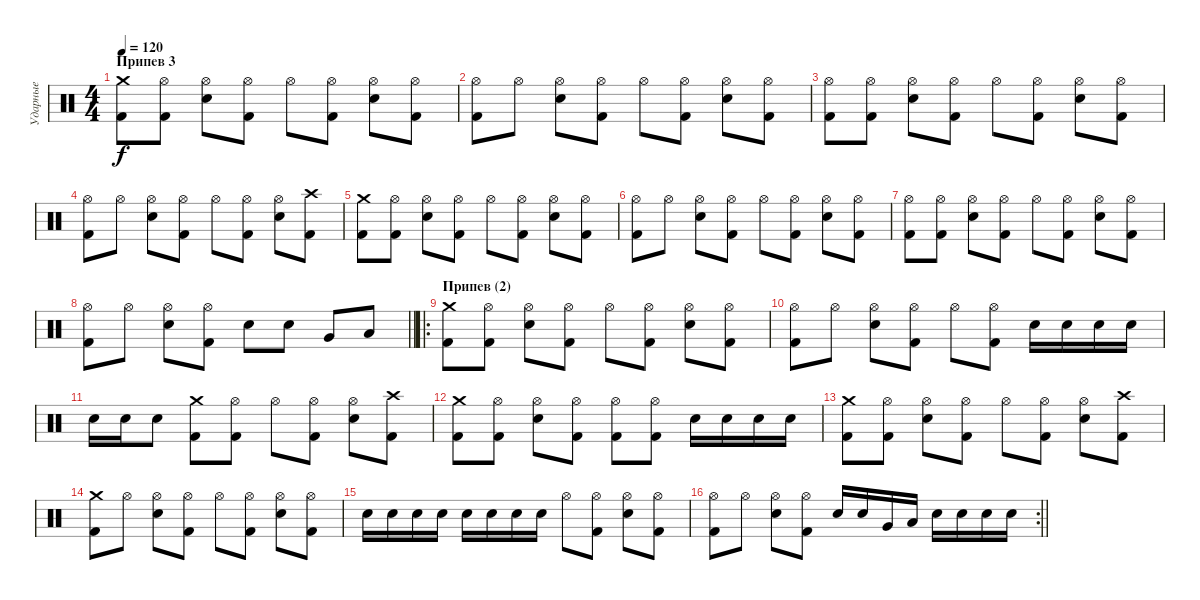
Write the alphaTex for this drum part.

\track ("Ударные" "Ударные") {instrument percussion}
\staff {score}
\articulation defaults
\ts (4 4)
\section ("" "Припев 3")
\tempo 120
\clef neutral
\ks c
("Crash medium (hit)" "Kick (hit) 2").8{dy f} ("Hi-Hat (open)" "Kick (hit) 2").8 ("Hi-Hat (open)" "Snare (hit) 2").8 ("Hi-Hat (open)" "Kick (hit) 2").8 "Hi-Hat (open)".8 ("Hi-Hat (open)" "Kick (hit) 2").8 ("Hi-Hat (open)" "Snare (hit) 2").8 ("Hi-Hat (open)" "Kick (hit) 2").8 |
("Hi-Hat (open)" "Kick (hit) 2").8 "Hi-Hat (open)".8 ("Hi-Hat (open)" "Snare (hit) 2").8 ("Hi-Hat (open)" "Kick (hit) 2").8 "Hi-Hat (open)".8 ("Hi-Hat (open)" "Kick (hit) 2").8 ("Hi-Hat (open)" "Snare (hit) 2").8 ("Hi-Hat (open)" "Kick (hit) 2").8 |
("Hi-Hat (open)" "Kick (hit) 2").8 ("Hi-Hat (open)" "Kick (hit) 2").8 ("Hi-Hat (open)" "Snare (hit) 2").8 ("Hi-Hat (open)" "Kick (hit) 2").8 "Hi-Hat (open)".8 ("Hi-Hat (open)" "Kick (hit) 2").8 ("Hi-Hat (open)" "Snare (hit) 2").8 ("Hi-Hat (open)" "Kick (hit) 2").8 |
("Hi-Hat (open)" "Kick (hit) 2").8 "Hi-Hat (open)".8 ("Hi-Hat (open)" "Snare (hit) 2").8 ("Hi-Hat (open)" "Kick (hit) 2").8 "Hi-Hat (open)".8 ("Hi-Hat (open)" "Kick (hit) 2").8 ("Hi-Hat (open)" "Snare (hit) 2").8 ("Crash high (hit)" "Kick (hit) 2").8 |
("Crash medium (hit)" "Kick (hit) 2").8 ("Hi-Hat (open)" "Kick (hit) 2").8 ("Hi-Hat (open)" "Snare (hit) 2").8 ("Hi-Hat (open)" "Kick (hit) 2").8 "Hi-Hat (open)".8 ("Hi-Hat (open)" "Kick (hit) 2").8 ("Hi-Hat (open)" "Snare (hit) 2").8 ("Hi-Hat (open)" "Kick (hit) 2").8 |
("Hi-Hat (open)" "Kick (hit) 2").8 "Hi-Hat (open)".8 ("Hi-Hat (open)" "Snare (hit) 2").8 ("Hi-Hat (open)" "Kick (hit) 2").8 "Hi-Hat (open)".8 ("Hi-Hat (open)" "Kick (hit) 2").8 ("Hi-Hat (open)" "Snare (hit) 2").8 ("Hi-Hat (open)" "Kick (hit) 2").8 |
("Hi-Hat (open)" "Kick (hit) 2").8 ("Hi-Hat (open)" "Kick (hit) 2").8 ("Hi-Hat (open)" "Snare (hit) 2").8 ("Hi-Hat (open)" "Kick (hit) 2").8 "Hi-Hat (open)".8 ("Hi-Hat (open)" "Kick (hit) 2").8 ("Hi-Hat (open)" "Snare (hit) 2").8 ("Hi-Hat (open)" "Kick (hit) 2").8 |
\barLineRight lightlight
("Hi-Hat (open)" "Kick (hit) 2").8 "Hi-Hat (open)".8 ("Hi-Hat (open)" "Snare (hit) 2").8 ("Hi-Hat (open)" "Kick (hit) 2").8 "Snare (hit) 2".8 "Snare (hit) 2".8 "Very Low Tom (hit)".8 "Low Tom (hit)".8 |
\ro
\section ("" "Припев (2)")
("Crash medium (hit)" "Kick (hit) 2").8 ("Hi-Hat (open)" "Kick (hit) 2").8 ("Hi-Hat (open)" "Snare (hit) 2").8 ("Hi-Hat (open)" "Kick (hit) 2").8 "Hi-Hat (open)".8 ("Hi-Hat (open)" "Kick (hit) 2").8 ("Hi-Hat (open)" "Snare (hit) 2").8 ("Hi-Hat (open)" "Kick (hit) 2").8 |
("Hi-Hat (open)" "Kick (hit) 2").8 "Hi-Hat (open)".8 ("Hi-Hat (open)" "Snare (hit) 2").8 ("Hi-Hat (open)" "Kick (hit) 2").8 "Hi-Hat (open)".8 ("Hi-Hat (open)" "Kick (hit) 2").8 "Snare (hit) 2".16 "Snare (hit) 2".16 "Snare (hit) 2".16 "Snare (hit) 2".16 |
"Snare (hit) 2".16 "Snare (hit) 2".16 "Snare (hit) 2".8 ("Crash medium (hit)" "Kick (hit) 2").8 ("Hi-Hat (open)" "Kick (hit) 2").8 "Hi-Hat (open)".8 ("Hi-Hat (open)" "Kick (hit) 2").8 ("Hi-Hat (open)" "Snare (hit) 2").8 ("Crash high (hit)" "Kick (hit) 2").8 |
("Crash medium (hit)" "Kick (hit) 2").8 ("Hi-Hat (open)" "Kick (hit) 2").8 ("Hi-Hat (open)" "Snare (hit) 2").8 ("Hi-Hat (open)" "Kick (hit) 2").8 ("Hi-Hat (open)" "Kick (hit) 2").8 ("Hi-Hat (open)" "Kick (hit) 2").8 "Snare (hit) 2".16 "Snare (hit) 2".16 "Snare (hit) 2".16 "Snare (hit) 2".16 |
("Crash medium (hit)" "Kick (hit) 2").8 ("Hi-Hat (open)" "Kick (hit) 2").8 ("Hi-Hat (open)" "Snare (hit) 2").8 ("Hi-Hat (open)" "Kick (hit) 2").8 "Hi-Hat (open)".8 ("Hi-Hat (open)" "Kick (hit) 2").8 ("Hi-Hat (open)" "Snare (hit) 2").8 ("Crash high (hit)" "Kick (hit) 2").8 |
("Crash medium (hit)" "Kick (hit) 2").8 "Hi-Hat (open)".8 ("Hi-Hat (open)" "Snare (hit) 2").8 ("Hi-Hat (open)" "Kick (hit) 2").8 "Hi-Hat (open)".8 ("Hi-Hat (open)" "Kick (hit) 2").8 ("Hi-Hat (open)" "Snare (hit) 2").8 ("Hi-Hat (open)" "Kick (hit) 2").8 |
"Snare (hit) 2".16 "Snare (hit) 2".16 "Snare (hit) 2".16 "Snare (hit) 2".16 "Snare (hit) 2".16 "Snare (hit) 2".16 "Snare (hit) 2".16 "Snare (hit) 2".16 "Hi-Hat (open)".8 ("Hi-Hat (open)" "Kick (hit) 2").8 ("Hi-Hat (open)" "Snare (hit) 2").8 ("Hi-Hat (open)" "Kick (hit) 2").8 |
\rc 2
\barLineRight lightlight
("Hi-Hat (open)" "Kick (hit) 2").8 "Hi-Hat (open)".8 ("Hi-Hat (open)" "Snare (hit) 2").8 ("Hi-Hat (open)" "Kick (hit) 2").8 "Snare (hit) 2".16 "Snare (hit) 2".16 "Very Low Tom (hit)".16 "Low Tom (hit)".16 "Snare (hit) 2".16 "Snare (hit) 2".16 "Snare (hit) 2".16 "Snare (hit) 2".16
